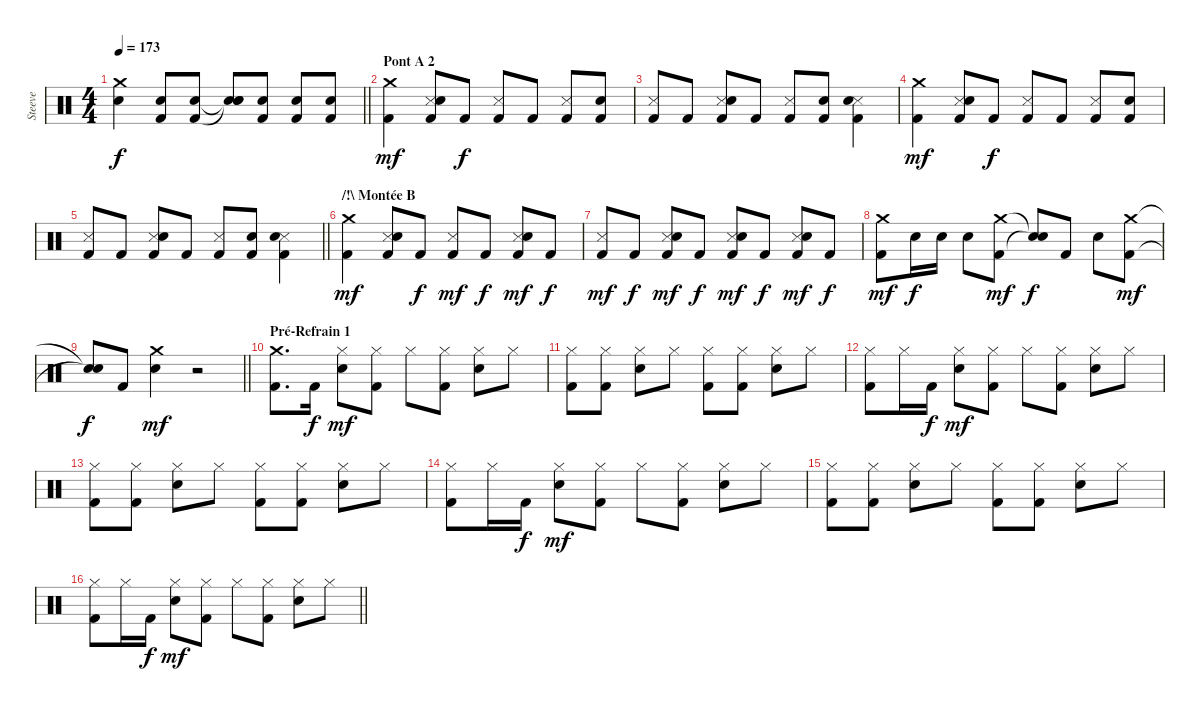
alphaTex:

\track ("Steeve" "Steeve") {instrument percussion}
\staff {score}
\articulation defaults
\ts (4 4)
\tempo 173
\clef neutral
\barLineRight lightlight
\ks c
("Crash medium (hit)" "Electric Snare (hit)").4{dy f} ("Electric Snare (hit)" "Kick (hit) 2").8 ("Electric Snare (hit)" "Kick (hit) 2").8 ("Snare (hit)"{t} "Snare (hit)"{t} "Snare (hit)").8 ("Electric Snare (hit)" "Kick (hit) 2").8 ("Electric Snare (hit)" "Kick (hit) 2").8 ("Electric Snare (hit)" "Kick (hit) 2").8 |
\section ("" "Pont A 2")
("Crash medium (hit)" "Kick (hit) 2").4{dy mf} ("Metronome (hit)" "Electric Snare (hit)" "Kick (hit) 2").8 "Kick (hit) 2".8{dy f} ("Metronome (hit)" "Kick (hit) 2").8 "Kick (hit) 2".8 ("Metronome (hit)" "Kick (hit) 2").8 ("Electric Snare (hit)" "Kick (hit) 2").8 |
("Metronome (hit)" "Kick (hit) 2").8 "Kick (hit) 2".8 ("Metronome (hit)" "Electric Snare (hit)" "Kick (hit) 2").8 "Kick (hit) 2".8 ("Metronome (hit)" "Kick (hit) 2").8 ("Electric Snare (hit)" "Kick (hit) 2").8 ("Metronome (hit)" "Electric Snare (hit)" "Kick (hit) 2").4 |
("Crash medium (hit)" "Kick (hit) 2").4{dy mf} ("Metronome (hit)" "Electric Snare (hit)" "Kick (hit) 2").8 "Kick (hit) 2".8{dy f} ("Metronome (hit)" "Kick (hit) 2").8 "Kick (hit) 2".8 ("Metronome (hit)" "Kick (hit) 2").8 ("Electric Snare (hit)" "Kick (hit) 2").8 |
\barLineRight lightlight
("Metronome (hit)" "Kick (hit) 2").8 "Kick (hit) 2".8 ("Metronome (hit)" "Electric Snare (hit)" "Kick (hit) 2").8 "Kick (hit) 2".8 ("Metronome (hit)" "Kick (hit) 2").8 ("Electric Snare (hit)" "Kick (hit) 2").8 ("Metronome (hit)" "Electric Snare (hit)" "Kick (hit) 2").4 |
\section ("" "/!\\ Montée B")
("Crash medium (hit)" "Kick (hit) 2").4{dy mf} ("Metronome (hit)" "Electric Snare (hit)" "Kick (hit) 2").8 "Kick (hit) 2".8{dy f} ("Metronome (hit)" "Kick (hit) 2").8{dy mf} "Kick (hit) 2".8{dy f} ("Metronome (hit)" "Electric Snare (hit)" "Kick (hit) 2").8{dy mf} "Kick (hit) 2".8{dy f} |
("Metronome (hit)" "Kick (hit) 2").8{dy mf} "Kick (hit) 2".8{dy f} ("Metronome (hit)" "Electric Snare (hit)" "Kick (hit) 2").8{dy mf} "Kick (hit) 2".8{dy f} ("Metronome (hit)" "Electric Snare (hit)" "Kick (hit) 2").8{dy mf} "Kick (hit) 2".8{dy f} ("Metronome (hit)" "Electric Snare (hit)" "Kick (hit) 2").8{dy mf} "Kick (hit) 2".8{dy f} |
("Crash medium (hit)" "Kick (hit) 2").8{dy mf} "Electric Snare (hit)".16{dy f} "Electric Snare (hit)".16 "Electric Snare (hit)".8 ("Crash medium (hit)" "Kick (hit) 2").8{dy mf} ("Snare (hit)"{t} "Snare (hit)"{t}).8{dy f} "Kick (hit) 2".8 "Electric Snare (hit)".8 ("Crash medium (hit)" "Kick (hit) 2").8{dy mf} |
\barLineRight lightlight
("Snare (hit)"{t} "Snare (hit)"{t}).8{dy f} "Kick (hit) 2".8 ("Crash medium (hit)" "Electric Snare (hit)").4{dy mf} r.2 |
\section ("" "Pré-Refrain 1")
("Crash medium (hit)" "Kick (hit) 2").8{d} "Kick (hit) 2".16{dy f} ("Hi-Hat (closed)" "Electric Snare (hit)").8{dy mf} ("Hi-Hat (closed)" "Kick (hit) 2").8 "Hi-Hat (closed)".8 ("Hi-Hat (closed)" "Kick (hit) 2").8 ("Hi-Hat (closed)" "Electric Snare (hit)").8 "Hi-Hat (closed)".8 |
("Hi-Hat (closed)" "Kick (hit) 2").8 ("Hi-Hat (closed)" "Kick (hit) 2").8 ("Hi-Hat (closed)" "Electric Snare (hit)").8 "Hi-Hat (closed)".8 ("Hi-Hat (closed)" "Kick (hit) 2").8 ("Hi-Hat (closed)" "Kick (hit) 2").8 ("Hi-Hat (closed)" "Electric Snare (hit)").8 "Hi-Hat (closed)".8 |
("Hi-Hat (closed)" "Kick (hit) 2").8 "Hi-Hat (closed)".16 "Kick (hit) 2".16{dy f} ("Hi-Hat (closed)" "Electric Snare (hit)").8{dy mf} ("Hi-Hat (closed)" "Kick (hit) 2").8 "Hi-Hat (closed)".8 ("Hi-Hat (closed)" "Kick (hit) 2").8 ("Hi-Hat (closed)" "Electric Snare (hit)").8 "Hi-Hat (closed)".8 |
("Hi-Hat (closed)" "Kick (hit) 2").8 ("Hi-Hat (closed)" "Kick (hit) 2").8 ("Hi-Hat (closed)" "Electric Snare (hit)").8 "Hi-Hat (closed)".8 ("Hi-Hat (closed)" "Kick (hit) 2").8 ("Hi-Hat (closed)" "Kick (hit) 2").8 ("Hi-Hat (closed)" "Electric Snare (hit)").8 "Hi-Hat (closed)".8 |
("Hi-Hat (closed)" "Kick (hit) 2").8 "Hi-Hat (closed)".16 "Kick (hit) 2".16{dy f} ("Hi-Hat (closed)" "Electric Snare (hit)").8{dy mf} ("Hi-Hat (closed)" "Kick (hit) 2").8 "Hi-Hat (closed)".8 ("Hi-Hat (closed)" "Kick (hit) 2").8 ("Hi-Hat (closed)" "Electric Snare (hit)").8 "Hi-Hat (closed)".8 |
("Hi-Hat (closed)" "Kick (hit) 2").8 ("Hi-Hat (closed)" "Kick (hit) 2").8 ("Hi-Hat (closed)" "Electric Snare (hit)").8 "Hi-Hat (closed)".8 ("Hi-Hat (closed)" "Kick (hit) 2").8 ("Hi-Hat (closed)" "Kick (hit) 2").8 ("Hi-Hat (closed)" "Electric Snare (hit)").8 "Hi-Hat (closed)".8 |
\barLineRight lightlight
("Hi-Hat (closed)" "Kick (hit) 2").8 "Hi-Hat (closed)".16 "Kick (hit) 2".16{dy f} ("Hi-Hat (closed)" "Electric Snare (hit)").8{dy mf} ("Hi-Hat (closed)" "Kick (hit) 2").8 "Hi-Hat (closed)".8 ("Hi-Hat (closed)" "Kick (hit) 2").8 ("Hi-Hat (closed)" "Electric Snare (hit)").8 "Hi-Hat (closed)".8
